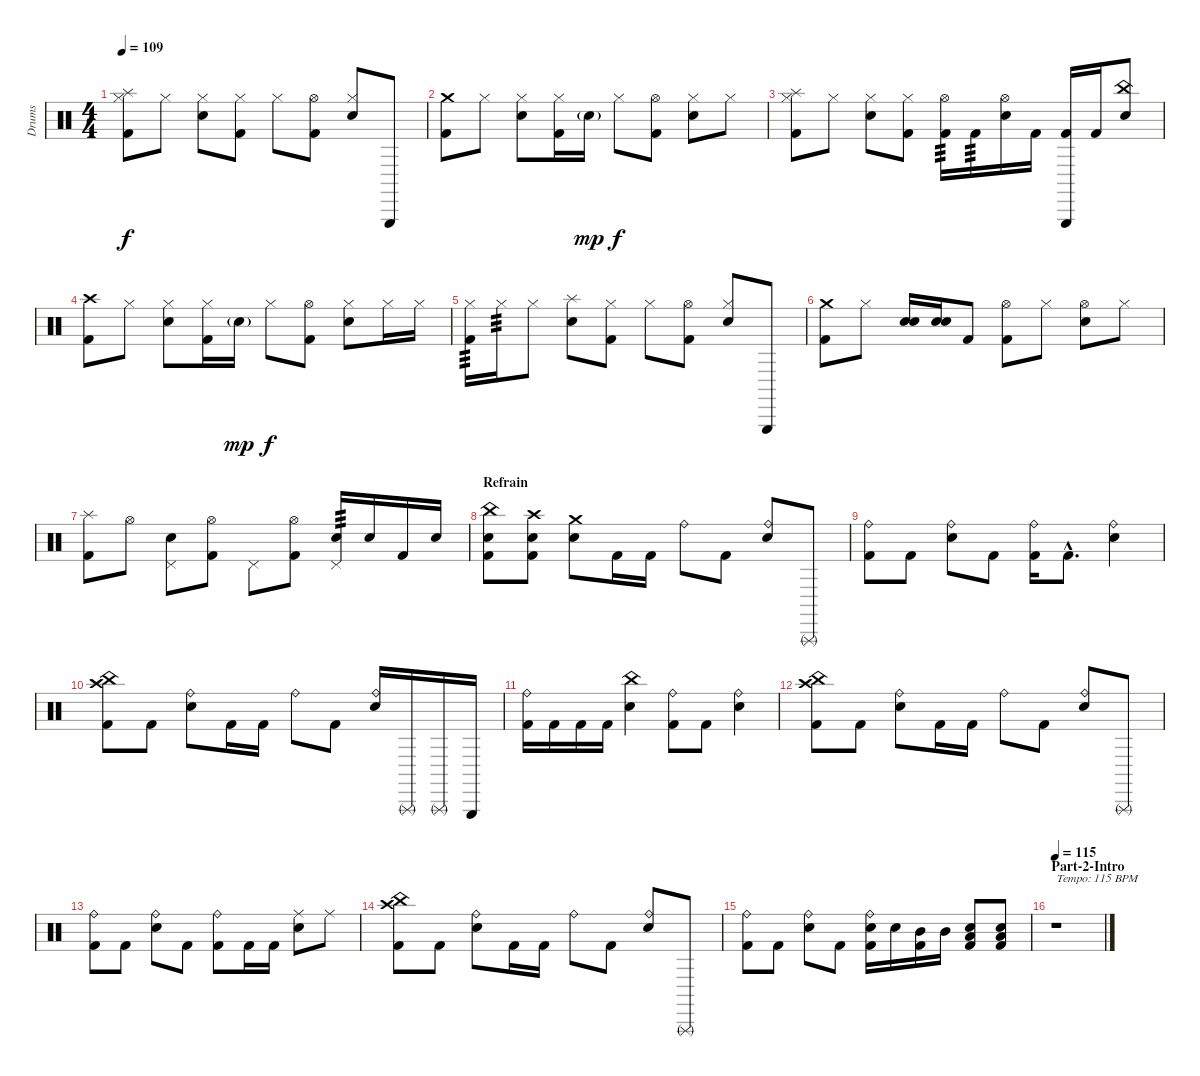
\track ("Drums" "Drums") {instrument percussion}
\staff {score}
\articulation defaults
\ts (4 4)
\tempo 109
\clef neutral
\ks c
("Hi-Hat (closed)" "Splash (hit)" "Kick (hit) 2").8{dy f} "Hi-Hat (closed)".8 ("Hi-Hat (closed)" "Snare (hit) 2").8 ("Hi-Hat (closed)" "Kick (hit) 2").8 "Hi-Hat (closed)".8 ("Hi-Hat (open)" "Kick (hit) 2").8 ("Hi-Hat (closed)" "Snare (hit) 2").8 "Triangle (hit)".8 |
("Crash medium (hit)" "Kick (hit) 2").8 "Hi-Hat (closed)".8 ("Hi-Hat (closed)" "Snare (hit) 2").8 ("Hi-Hat (closed)" "Kick (hit) 2").16 "Snare (hit) 2"{g}.16{dy mp} "Hi-Hat (closed)".8{dy f} ("Hi-Hat (open)" "Kick (hit) 2").8 ("Hi-Hat (closed)" "Snare (hit) 2").8 "Hi-Hat (closed)".8 |
("Hi-Hat (closed)" "Splash (hit)" "Kick (hit) 2").8 "Hi-Hat (closed)".8 ("Hi-Hat (closed)" "Snare (hit) 2").8 ("Hi-Hat (closed)" "Kick (hit) 2").8 ("Hi-Hat (open)" "Kick (hit) 2").16{tp 3} "Kick (hit) 2".16{tp 3} ("Hi-Hat (open)" "Snare (hit) 2").16 "Kick (hit) 2".16 ("Triangle (hit)" "Kick (hit) 2").16 "Kick (hit) 2".16 ("China (hit)" "Snare (hit) 2").8 |
("Crash high (hit)" "Kick (hit) 2").8 "Hi-Hat (closed)".8 ("Hi-Hat (closed)" "Snare (hit) 2").8 ("Hi-Hat (closed)" "Kick (hit) 2").16 "Snare (hit) 2"{g}.16{dy mp} "Hi-Hat (closed)".8{dy f} ("Hi-Hat (open)" "Kick (hit) 2").8 ("Hi-Hat (closed)" "Snare (hit) 2").8 "Hi-Hat (closed)".16 "Hi-Hat (closed)".16 |
("Hi-Hat (closed)" "Kick (hit) 2").16{tp 3} "Hi-Hat (closed)".16{tp 3} "Hi-Hat (closed)".8 ("Splash (hit)" "Snare (hit) 2").8 ("Hi-Hat (closed)" "Kick (hit) 2").8 "Hi-Hat (closed)".8 ("Hi-Hat (open)" "Kick (hit) 2").8 ("Hi-Hat (closed)" "Snare (hit) 2").8 "Triangle (hit)".8 |
("Crash medium (hit)" "Kick (hit) 2").8 "Hi-Hat (closed)".8 ("Snare (hit) 2" "Snare (hit) 2").16 ("Snare (hit) 2" "Snare (hit) 2").16 "Kick (hit) 2".8 ("Hi-Hat (open)" "Kick (hit) 2").8 "Hi-Hat (closed)".8 ("Hi-Hat (open)" "Snare (hit) 2").8 "Hi-Hat (closed)".8 |
("Splash (hit)" "Kick (hit) 2").8 "Hi-Hat (open)".8 ("Pedal Hi-Hat (hit)" "Snare (hit) 2").8 ("Hi-Hat (open)" "Kick (hit) 2").8 "Pedal Hi-Hat (hit)".8 ("Hi-Hat (open)" "Kick (hit) 2").8 ("Pedal Hi-Hat (hit)" "Snare (hit) 2").16{tp 3} "Snare (hit) 2".16 "Kick (hit) 2".16 "Snare (hit) 2".16 |
\section ("" "Refrain")
("China (hit)" "Snare (hit) 2" "Kick (hit) 2").8 ("Crash high (hit)" "Snare (hit) 2" "Kick (hit) 2").8 ("Crash medium (hit)" "Snare (hit) 2").8 "Kick (hit) 2".16 "Kick (hit) 2".16 "Ride (bell)".8 "Kick (hit) 2".8 ("Ride (bell)" "Snare (hit) 2").8 "Triangle (rnute)".8 |
("Ride (bell)" "Kick (hit) 2").8 "Kick (hit) 2".8 ("Ride (bell)" "Snare (hit) 2").8 "Kick (hit) 2".8 ("Ride (bell)" "Kick (hit) 2").16 "Kick (hit) 2"{hac}.8{d} ("Ride (bell)" "Electric Snare (hit)").4 |
("Crash high (hit)" "China (hit)" "Kick (hit) 2").8 "Kick (hit) 2".8 ("Ride (bell)" "Snare (hit) 2").8 "Kick (hit) 2".16 "Kick (hit) 2".16 "Ride (bell)".8 "Kick (hit) 2".8 ("Ride (bell)" "Snare (hit) 2").16 "Triangle (rnute)".16 "Triangle (rnute)".16 "Triangle (hit)".16 |
("Ride (bell)" "Kick (hit) 2").16 "Kick (hit) 2".16 "Kick (hit) 2".16 "Kick (hit) 2".16 ("China (hit)" "Snare (hit) 2").4 ("Ride (bell)" "Kick (hit) 2").8 "Kick (hit) 2".8 ("Ride (bell)" "Snare (hit) 2").4 |
("Crash high (hit)" "China (hit)" "Kick (hit) 2").8 "Kick (hit) 2".8 ("Ride (bell)" "Snare (hit) 2").8 "Kick (hit) 2".16 "Kick (hit) 2".16 "Ride (bell)".8 "Kick (hit) 2".8 ("Ride (bell)" "Snare (hit) 2").8 "Triangle (rnute)".8 |
("Ride (bell)" "Kick (hit) 2").8 "Kick (hit) 2".8 ("Ride (bell)" "Snare (hit) 2").8 "Kick (hit) 2".8 ("Ride (bell)" "Kick (hit) 2").8 "Kick (hit) 2".16 "Kick (hit) 2".16 ("Ride (middle)" "Electric Snare (hit)").8 "Ride (middle)".8 |
("Crash high (hit)" "China (hit)" "Kick (hit) 2").8 "Kick (hit) 2".8 ("Ride (bell)" "Snare (hit) 2").8 "Kick (hit) 2".16 "Kick (hit) 2".16 "Ride (bell)".8 "Kick (hit) 2".8 ("Ride (bell)" "Snare (hit) 2").8 "Triangle (rnute)".8 |
("Ride (bell)" "Kick (hit) 2").8 "Kick (hit) 2".8 ("Ride (bell)" "Snare (hit) 2").8 "Kick (hit) 2".8 ("Ride (bell)" "Snare (hit) 2" "Kick (hit) 2").16 "Snare (hit) 2".16 ("Mid Tom (hit)" "Kick (hit) 2").16 "Mid Tom (hit)".16 ("Snare (hit) 2" "Low Tom (hit)" "Kick (hit) 2").8 ("Snare (hit) 2" "Low Tom (hit)" "Kick (hit) 2").8 |
\section ("" "Part-2-Intro")
\tempo 115
r.1{txt "Tempo: 115 BPM"}
